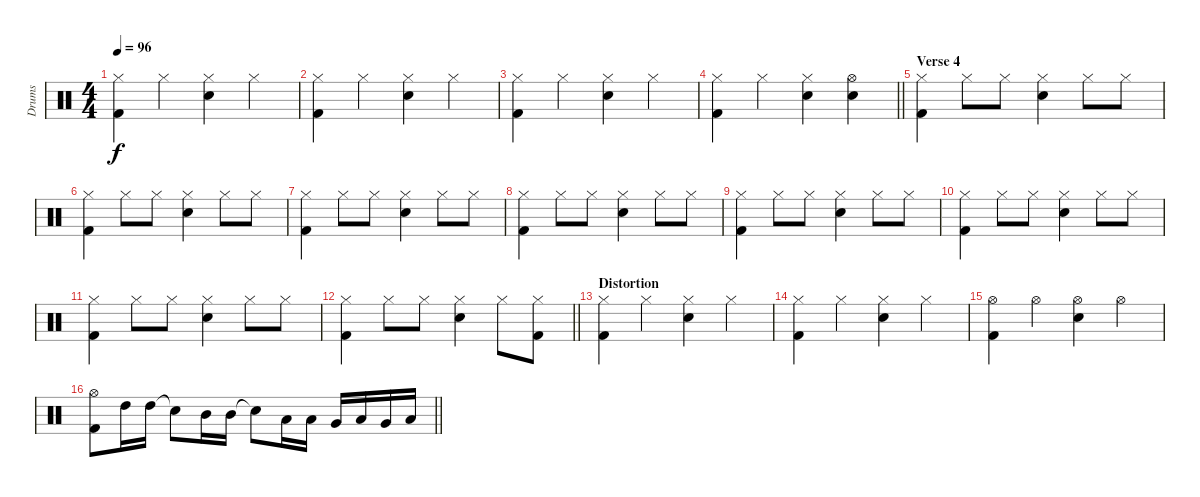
\track ("Drums" "Drums") {instrument percussion}
\staff {score}
\articulation defaults
\ts (4 4)
\tempo 96
\clef neutral
\ks c
("Hi-Hat (closed)" "Kick (hit) 2").4{dy f} "Hi-Hat (closed)".4 ("Hi-Hat (closed)" "Electric Snare (hit)").4 "Hi-Hat (closed)".4 |
("Hi-Hat (closed)" "Kick (hit) 2").4 "Hi-Hat (closed)".4 ("Hi-Hat (closed)" "Electric Snare (hit)").4 "Hi-Hat (closed)".4 |
("Hi-Hat (closed)" "Kick (hit) 2").4 "Hi-Hat (closed)".4 ("Hi-Hat (closed)" "Electric Snare (hit)").4 "Hi-Hat (closed)".4 |
\barLineRight lightlight
("Hi-Hat (closed)" "Kick (hit) 2").4 "Hi-Hat (closed)".4 ("Hi-Hat (closed)" "Electric Snare (hit)").4 ("Hi-Hat (open)" "Electric Snare (hit)").4 |
\section ("" "Verse 4")
("Hi-Hat (closed)" "Kick (hit) 2").4 "Hi-Hat (closed)".8 "Hi-Hat (closed)".8 ("Hi-Hat (closed)" "Electric Snare (hit)").4 "Hi-Hat (closed)".8 "Hi-Hat (closed)".8 |
("Hi-Hat (closed)" "Kick (hit) 2").4 "Hi-Hat (closed)".8 "Hi-Hat (closed)".8 ("Hi-Hat (closed)" "Electric Snare (hit)").4 "Hi-Hat (closed)".8 "Hi-Hat (closed)".8 |
("Hi-Hat (closed)" "Kick (hit) 2").4 "Hi-Hat (closed)".8 "Hi-Hat (closed)".8 ("Hi-Hat (closed)" "Electric Snare (hit)").4 "Hi-Hat (closed)".8 "Hi-Hat (closed)".8 |
("Hi-Hat (closed)" "Kick (hit) 2").4 "Hi-Hat (closed)".8 "Hi-Hat (closed)".8 ("Hi-Hat (closed)" "Electric Snare (hit)").4 "Hi-Hat (closed)".8 "Hi-Hat (closed)".8 |
("Hi-Hat (closed)" "Kick (hit) 2").4 "Hi-Hat (closed)".8 "Hi-Hat (closed)".8 ("Hi-Hat (closed)" "Electric Snare (hit)").4 "Hi-Hat (closed)".8 "Hi-Hat (closed)".8 |
("Hi-Hat (closed)" "Kick (hit) 2").4 "Hi-Hat (closed)".8 "Hi-Hat (closed)".8 ("Hi-Hat (closed)" "Electric Snare (hit)").4 "Hi-Hat (closed)".8 "Hi-Hat (closed)".8 |
("Hi-Hat (closed)" "Kick (hit) 2").4 "Hi-Hat (closed)".8 "Hi-Hat (closed)".8 ("Hi-Hat (closed)" "Electric Snare (hit)").4 "Hi-Hat (closed)".8 "Hi-Hat (closed)".8 |
\barLineRight lightlight
("Hi-Hat (closed)" "Kick (hit) 2").4 "Hi-Hat (closed)".8 "Hi-Hat (closed)".8 ("Hi-Hat (closed)" "Electric Snare (hit)").4 "Hi-Hat (closed)".8 ("Hi-Hat (closed)" "Kick (hit) 2").8 |
\section ("" "Distortion")
("Hi-Hat (closed)" "Kick (hit) 2").4 "Hi-Hat (closed)".4 ("Hi-Hat (closed)" "Electric Snare (hit)").4 "Hi-Hat (closed)".4 |
("Hi-Hat (closed)" "Kick (hit) 2").4 "Hi-Hat (closed)".4 ("Hi-Hat (closed)" "Electric Snare (hit)").4 "Hi-Hat (closed)".4 |
("Hi-Hat (open)" "Kick (hit) 2").4 "Hi-Hat (open)".4 ("Hi-Hat (open)" "Electric Snare (hit)").4 "Hi-Hat (open)".4 |
\barLineRight lightlight
("Hi-Hat (open)" "Kick (hit) 2").8 "High Tom (hit)".16 "High Tom (hit)".16 "Snare (hit)"{t}.8 "Mid Tom (hit)".16 "Mid Tom (hit)".16 "Snare (hit)"{t}.8 "Low Tom (hit)".16 "Low Tom (hit)".16 "Very Low Tom (hit)".16 "Low Floor Tom (hit)".16 "Very Low Tom (hit)".16 "Low Floor Tom (hit)".16
